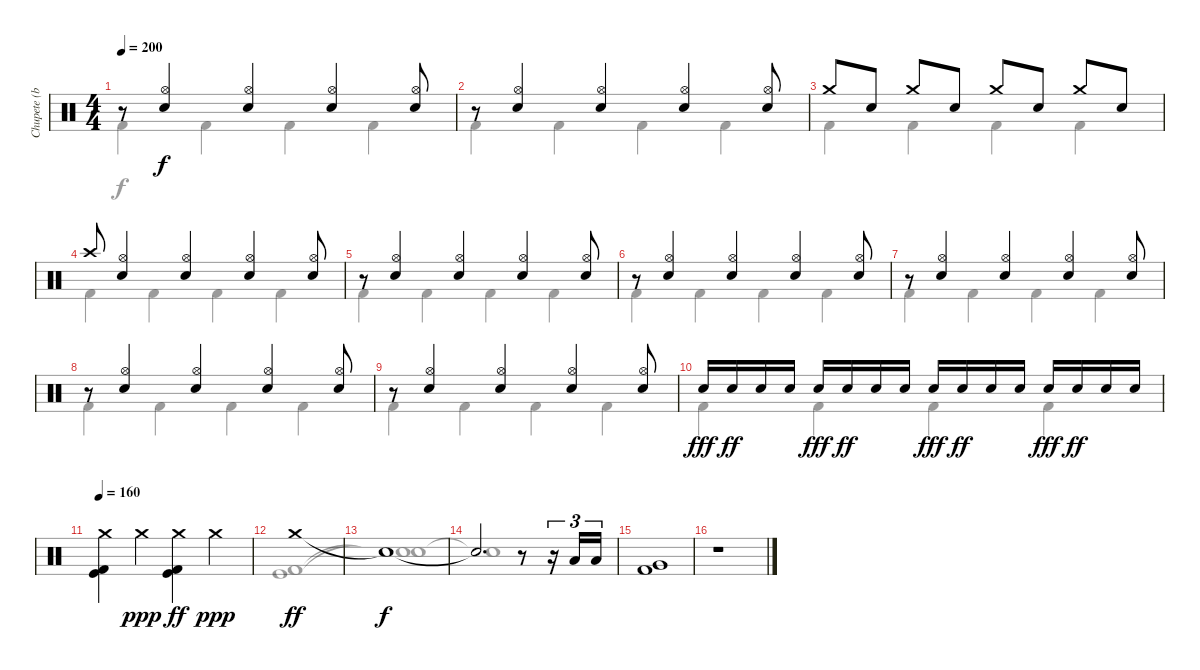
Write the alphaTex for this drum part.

\track ("Chupete (batería)" "Chupete (b") {instrument percussion}
\staff {score}
\articulation defaults
\voice
\ts (4 4)
\tempo 200
\clef neutral
\ks c
r.8{dy f} ("Hi-Hat (open)" "Electric Snare (hit)").4 ("Hi-Hat (open)" "Electric Snare (hit)").4 ("Hi-Hat (open)" "Electric Snare (hit)").4 ("Hi-Hat (open)" "Electric Snare (hit)").8 |
r.8 ("Hi-Hat (open)" "Electric Snare (hit)").4 ("Hi-Hat (open)" "Electric Snare (hit)").4 ("Hi-Hat (open)" "Electric Snare (hit)").4 ("Hi-Hat (open)" "Electric Snare (hit)").8 |
"Crash medium (hit)".8 "Electric Snare (hit)".8 "Crash medium (hit)".8 "Electric Snare (hit)".8 "Crash medium (hit)".8 "Electric Snare (hit)".8 "Crash medium (hit)".8 "Electric Snare (hit)".8 |
"Crash high (hit)".8 ("Hi-Hat (open)" "Electric Snare (hit)").4 ("Hi-Hat (open)" "Electric Snare (hit)").4 ("Hi-Hat (open)" "Electric Snare (hit)").4 ("Hi-Hat (open)" "Electric Snare (hit)").8 |
r.8 ("Hi-Hat (open)" "Electric Snare (hit)").4 ("Hi-Hat (open)" "Electric Snare (hit)").4 ("Hi-Hat (open)" "Electric Snare (hit)").4 ("Hi-Hat (open)" "Electric Snare (hit)").8 |
r.8 ("Hi-Hat (open)" "Electric Snare (hit)").4 ("Hi-Hat (open)" "Electric Snare (hit)").4 ("Hi-Hat (open)" "Electric Snare (hit)").4 ("Hi-Hat (open)" "Electric Snare (hit)").8 |
r.8 ("Hi-Hat (open)" "Electric Snare (hit)").4 ("Hi-Hat (open)" "Electric Snare (hit)").4 ("Hi-Hat (open)" "Electric Snare (hit)").4 ("Hi-Hat (open)" "Electric Snare (hit)").8 |
r.8 ("Hi-Hat (open)" "Electric Snare (hit)").4 ("Hi-Hat (open)" "Electric Snare (hit)").4 ("Hi-Hat (open)" "Electric Snare (hit)").4 ("Hi-Hat (open)" "Electric Snare (hit)").8 |
r.8 ("Hi-Hat (open)" "Electric Snare (hit)").4 ("Hi-Hat (open)" "Electric Snare (hit)").4 ("Hi-Hat (open)" "Electric Snare (hit)").4 ("Hi-Hat (open)" "Electric Snare (hit)").8 |
"Electric Snare (hit)".16{dy fff} "Electric Snare (hit)".16{dy ff} "Electric Snare (hit)".16 "Electric Snare (hit)".16 "Electric Snare (hit)".16{dy fff} "Electric Snare (hit)".16{dy ff} "Electric Snare (hit)".16 "Electric Snare (hit)".16 "Electric Snare (hit)".16{dy fff} "Electric Snare (hit)".16{dy ff} "Electric Snare (hit)".16 "Electric Snare (hit)".16 "Electric Snare (hit)".16{dy fff} "Electric Snare (hit)".16{dy ff} "Electric Snare (hit)".16 "Electric Snare (hit)".16 |
\tempo 160
("Crash medium (hit)" "Kick (hit)" "Kick (hit) 2").4 "Crash medium (hit)".4{dy ppp} ("Crash medium (hit)" "Kick (hit)" "Kick (hit) 2").4{dy ff} "Crash medium (hit)".4{dy ppp} |
"Crash medium (hit)".1{dy ff} |
"Snare (hit)"{t}.1{dy f} |
"Snare (hit)"{t}.2{d} r.8 r.16{tu (3 2)} "Low Tom (hit)".16{tu (3 2)} "Low Tom (hit)".16{tu (3 2)} |
("Very Low Tom (hit)" "Kick (hit) 2").1 |
r.1
\voice
\clef neutral
\ottava regular
\simile none
\ks c "Kick (hit) 2".4{dy f} "Kick (hit) 2".4 "Kick (hit) 2".4 "Kick (hit) 2".4
|
"Kick (hit) 2".4 "Kick (hit) 2".4 "Kick (hit) 2".4 "Kick (hit) 2".4 |
"Kick (hit) 2".4 "Kick (hit) 2".4 "Kick (hit) 2".4 "Kick (hit) 2".4 |
"Kick (hit) 2".4 "Kick (hit) 2".4 "Kick (hit) 2".4 "Kick (hit) 2".4 |
"Kick (hit) 2".4 "Kick (hit) 2".4 "Kick (hit) 2".4 "Kick (hit) 2".4 |
"Kick (hit) 2".4 "Kick (hit) 2".4 "Kick (hit) 2".4 "Kick (hit) 2".4 |
"Kick (hit) 2".4 "Kick (hit) 2".4 "Kick (hit) 2".4 "Kick (hit) 2".4 |
"Kick (hit) 2".4 "Kick (hit) 2".4 "Kick (hit) 2".4 "Kick (hit) 2".4 |
"Kick (hit) 2".4 "Kick (hit) 2".4 "Kick (hit) 2".4 "Kick (hit) 2".4 |
"Kick (hit) 2".4 "Kick (hit) 2".4 "Kick (hit) 2".4 "Kick (hit) 2".4 |
|
("Kick (hit)" "Kick (hit) 2").1{dy ff} |
("Snare (hit)"{t} "Snare (hit)"{t}).1{dy f} |
"Snare (hit)"{t}.1 |
|
